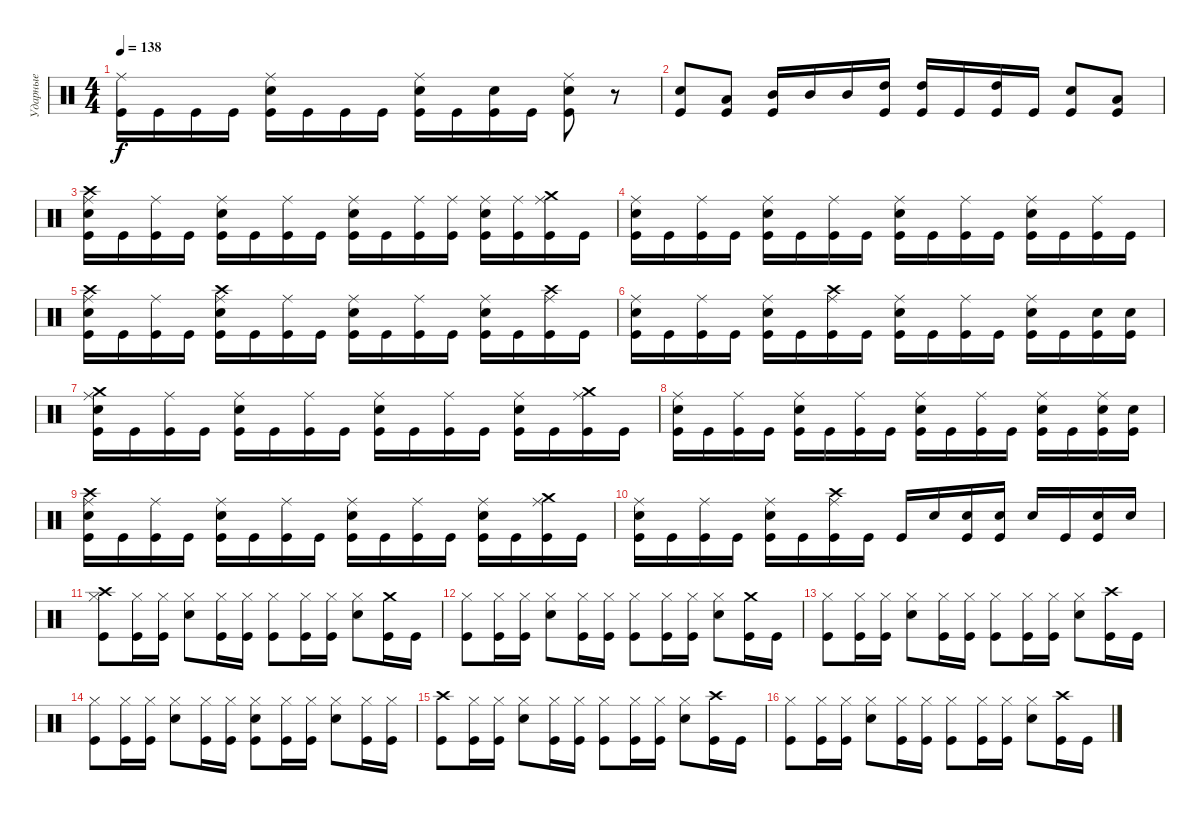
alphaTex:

\track ("Ударные" "Ударные") {instrument percussion}
\staff {score}
\articulation defaults
\ts (4 4)
\tempo 138
\clef neutral
\ks c
("Ride (middle)" "Kick (hit)").16{dy f} "Kick (hit)".16 "Kick (hit)".16 "Kick (hit)".16 ("Ride (middle)" "Electric Snare (hit)" "Kick (hit)").16 "Kick (hit)".16 "Kick (hit)".16 "Kick (hit)".16 ("Ride (middle)" "Electric Snare (hit)" "Kick (hit)").16 "Kick (hit)".16 ("Electric Snare (hit)" "Kick (hit)").16 "Kick (hit)".16 ("Ride (middle)" "Electric Snare (hit)" "Kick (hit)").8 r.8 |
("Electric Snare (hit)" "Kick (hit)").8 ("Low Tom (hit)" "Kick (hit)").8 ("Mid Tom (hit)" "Kick (hit)").16 "Mid Tom (hit)".16 "Mid Tom (hit)".16 ("High Tom (hit)" "Kick (hit)").16 ("High Tom (hit)" "Kick (hit)").16 "Kick (hit)".16 ("High Tom (hit)" "Kick (hit)").16 "Kick (hit)".16 ("Electric Snare (hit)" "Kick (hit)").8 ("Low Tom (hit)" "Kick (hit)").8 |
("Crash high (hit)" "Ride (middle)" "Electric Snare (hit)" "Kick (hit)").16 "Kick (hit)".16 ("Ride (middle)" "Kick (hit)").16 "Kick (hit)".16 ("Ride (middle)" "Electric Snare (hit)" "Kick (hit)").16 "Kick (hit)".16 ("Ride (middle)" "Kick (hit)").16 "Kick (hit)".16 ("Ride (middle)" "Electric Snare (hit)" "Kick (hit)").16 "Kick (hit)".16 ("Ride (middle)" "Kick (hit)").16 ("Ride (middle)" "Kick (hit)").16 ("Ride (middle)" "Electric Snare (hit)" "Kick (hit)").16 ("Ride (middle)" "Kick (hit)").16 ("Crash medium (hit)" "Ride (middle)" "Kick (hit)").16 "Kick (hit)".16 |
("Ride (middle)" "Electric Snare (hit)" "Kick (hit)").16 "Kick (hit)".16 ("Ride (middle)" "Kick (hit)").16 "Kick (hit)".16 ("Ride (middle)" "Electric Snare (hit)" "Kick (hit)").16 "Kick (hit)".16 ("Ride (middle)" "Kick (hit)").16 "Kick (hit)".16 ("Ride (middle)" "Electric Snare (hit)" "Kick (hit)").16 "Kick (hit)".16 ("Ride (middle)" "Kick (hit)").16 "Kick (hit)".16 ("Ride (middle)" "Electric Snare (hit)" "Kick (hit)").16 "Kick (hit)".16 ("Ride (middle)" "Kick (hit)").16 "Kick (hit)".16 |
("Crash high (hit)" "Ride (middle)" "Electric Snare (hit)" "Kick (hit)").16 "Kick (hit)".16 ("Ride (middle)" "Kick (hit)").16 "Kick (hit)".16 ("Crash high (hit)" "Ride (middle)" "Electric Snare (hit)" "Kick (hit)").16 "Kick (hit)".16 ("Ride (middle)" "Kick (hit)").16 "Kick (hit)".16 ("Ride (middle)" "Electric Snare (hit)" "Kick (hit)").16 "Kick (hit)".16 ("Ride (middle)" "Kick (hit)").16 "Kick (hit)".16 ("Ride (middle)" "Electric Snare (hit)" "Kick (hit)").16 "Kick (hit)".16 ("Crash high (hit)" "Ride (middle)" "Kick (hit)").16 "Kick (hit)".16 |
("Ride (middle)" "Electric Snare (hit)" "Kick (hit)").16 "Kick (hit)".16 ("Ride (middle)" "Kick (hit)").16 "Kick (hit)".16 ("Ride (middle)" "Electric Snare (hit)" "Kick (hit)").16 "Kick (hit)".16 ("Crash high (hit)" "Ride (middle)" "Kick (hit)").16 "Kick (hit)".16 ("Ride (middle)" "Electric Snare (hit)" "Kick (hit)").16 "Kick (hit)".16 ("Ride (middle)" "Kick (hit)").16 "Kick (hit)".16 ("Ride (middle)" "Electric Snare (hit)" "Kick (hit)").16 "Kick (hit)".16 ("Electric Snare (hit)" "Kick (hit)").16 ("Electric Snare (hit)" "Kick (hit)").16 |
("Crash medium (hit)" "Ride (middle)" "Electric Snare (hit)" "Kick (hit)").16 "Kick (hit)".16 ("Ride (middle)" "Kick (hit)").16 "Kick (hit)".16 ("Ride (middle)" "Electric Snare (hit)" "Kick (hit)").16 "Kick (hit)".16 ("Ride (middle)" "Kick (hit)").16 "Kick (hit)".16 ("Ride (middle)" "Electric Snare (hit)" "Kick (hit)").16 "Kick (hit)".16 ("Ride (middle)" "Kick (hit)").16 "Kick (hit)".16 ("Ride (middle)" "Electric Snare (hit)" "Kick (hit)").16 "Kick (hit)".16 ("Crash medium (hit)" "Ride (middle)" "Kick (hit)").16 "Kick (hit)".16 |
("Ride (middle)" "Electric Snare (hit)" "Kick (hit)").16 "Kick (hit)".16 ("Ride (middle)" "Kick (hit)").16 "Kick (hit)".16 ("Ride (middle)" "Electric Snare (hit)" "Kick (hit)").16 "Kick (hit)".16 ("Ride (middle)" "Kick (hit)").16 "Kick (hit)".16 ("Ride (middle)" "Electric Snare (hit)" "Kick (hit)").16 "Kick (hit)".16 ("Ride (middle)" "Kick (hit)").16 "Kick (hit)".16 ("Ride (middle)" "Electric Snare (hit)" "Kick (hit)").16 "Kick (hit)".16 ("Ride (middle)" "Electric Snare (hit)" "Kick (hit)").16 ("Electric Snare (hit)" "Kick (hit)").16 |
("Crash high (hit)" "Ride (middle)" "Electric Snare (hit)" "Kick (hit)").16 "Kick (hit)".16 ("Ride (middle)" "Kick (hit)").16 "Kick (hit)".16 ("Ride (middle)" "Electric Snare (hit)" "Kick (hit)").16 "Kick (hit)".16 ("Ride (middle)" "Kick (hit)").16 "Kick (hit)".16 ("Ride (middle)" "Electric Snare (hit)" "Kick (hit)").16 "Kick (hit)".16 ("Ride (middle)" "Kick (hit)").16 "Kick (hit)".16 ("Ride (middle)" "Electric Snare (hit)" "Kick (hit)").16 "Kick (hit)".16 ("Crash medium (hit)" "Ride (middle)" "Kick (hit)").16 "Kick (hit)".16 |
("Ride (middle)" "Electric Snare (hit)" "Kick (hit)").16 "Kick (hit)".16 ("Ride (middle)" "Kick (hit)").16 "Kick (hit)".16 ("Ride (middle)" "Electric Snare (hit)" "Kick (hit)").16 "Kick (hit)".16 ("Crash high (hit)" "Ride (middle)" "Kick (hit)").16 "Kick (hit)".16 "Kick (hit)".16 "Electric Snare (hit)".16 ("Electric Snare (hit)" "Kick (hit)").16 ("Electric Snare (hit)" "Kick (hit)").16 "Electric Snare (hit)".16 "Kick (hit)".16 ("Electric Snare (hit)" "Kick (hit)").16 "Electric Snare (hit)".16 |
("Crash high (hit)" "Hi-Hat (closed)" "Kick (hit)").8 ("Hi-Hat (closed)" "Kick (hit)").16 ("Hi-Hat (closed)" "Kick (hit)").16 ("Hi-Hat (closed)" "Electric Snare (hit)").8 ("Hi-Hat (closed)" "Kick (hit)").16 ("Hi-Hat (closed)" "Kick (hit)").16 ("Hi-Hat (closed)" "Kick (hit)").8 ("Hi-Hat (closed)" "Kick (hit)").16 ("Hi-Hat (closed)" "Kick (hit)").16 ("Hi-Hat (closed)" "Electric Snare (hit)").8 ("Crash medium (hit)" "Kick (hit)").16 "Kick (hit)".16 |
("Hi-Hat (closed)" "Kick (hit)").8 ("Hi-Hat (closed)" "Kick (hit)").16 ("Hi-Hat (closed)" "Kick (hit)").16 ("Hi-Hat (closed)" "Electric Snare (hit)").8 ("Hi-Hat (closed)" "Kick (hit)").16 ("Hi-Hat (closed)" "Kick (hit)").16 ("Hi-Hat (closed)" "Kick (hit)").8 ("Hi-Hat (closed)" "Kick (hit)").16 ("Hi-Hat (closed)" "Kick (hit)").16 ("Hi-Hat (closed)" "Electric Snare (hit)").8 ("Crash medium (hit)" "Kick (hit)").16 "Kick (hit)".16 |
("Hi-Hat (closed)" "Kick (hit)").8 ("Hi-Hat (closed)" "Kick (hit)").16 ("Hi-Hat (closed)" "Kick (hit)").16 ("Hi-Hat (closed)" "Electric Snare (hit)").8 ("Hi-Hat (closed)" "Kick (hit)").16 ("Hi-Hat (closed)" "Kick (hit)").16 ("Hi-Hat (closed)" "Kick (hit)").8 ("Hi-Hat (closed)" "Kick (hit)").16 ("Hi-Hat (closed)" "Kick (hit)").16 ("Hi-Hat (closed)" "Electric Snare (hit)").8 ("Crash high (hit)" "Kick (hit)").16 "Kick (hit)".16 |
("Hi-Hat (closed)" "Kick (hit)").8 ("Hi-Hat (closed)" "Kick (hit)").16 ("Hi-Hat (closed)" "Kick (hit)").16 ("Hi-Hat (closed)" "Electric Snare (hit)").8 ("Hi-Hat (closed)" "Kick (hit)").16 ("Hi-Hat (closed)" "Kick (hit)").16 ("Hi-Hat (closed)" "Electric Snare (hit)" "Kick (hit)").8 ("Hi-Hat (closed)" "Kick (hit)").16 ("Hi-Hat (closed)" "Kick (hit)").16 ("Hi-Hat (closed)" "Electric Snare (hit)").8 ("Hi-Hat (closed)" "Kick (hit)").16 ("Hi-Hat (closed)" "Kick (hit)").16 |
("Crash high (hit)" "Kick (hit)").8 ("Hi-Hat (closed)" "Kick (hit)").16 ("Hi-Hat (closed)" "Kick (hit)").16 ("Hi-Hat (closed)" "Electric Snare (hit)").8 ("Hi-Hat (closed)" "Kick (hit)").16 ("Hi-Hat (closed)" "Kick (hit)").16 ("Hi-Hat (closed)" "Kick (hit)").8 ("Hi-Hat (closed)" "Kick (hit)").16 ("Hi-Hat (closed)" "Kick (hit)").16 ("Hi-Hat (closed)" "Electric Snare (hit)").8 ("Crash high (hit)" "Kick (hit)").16 "Kick (hit)".16 |
("Hi-Hat (closed)" "Kick (hit)").8 ("Hi-Hat (closed)" "Kick (hit)").16 ("Hi-Hat (closed)" "Kick (hit)").16 ("Hi-Hat (closed)" "Electric Snare (hit)").8 ("Hi-Hat (closed)" "Kick (hit)").16 ("Hi-Hat (closed)" "Kick (hit)").16 ("Hi-Hat (closed)" "Kick (hit)").8 ("Hi-Hat (closed)" "Kick (hit)").16 ("Hi-Hat (closed)" "Kick (hit)").16 ("Hi-Hat (closed)" "Electric Snare (hit)").8 ("Crash high (hit)" "Kick (hit)").16 "Kick (hit)".16
